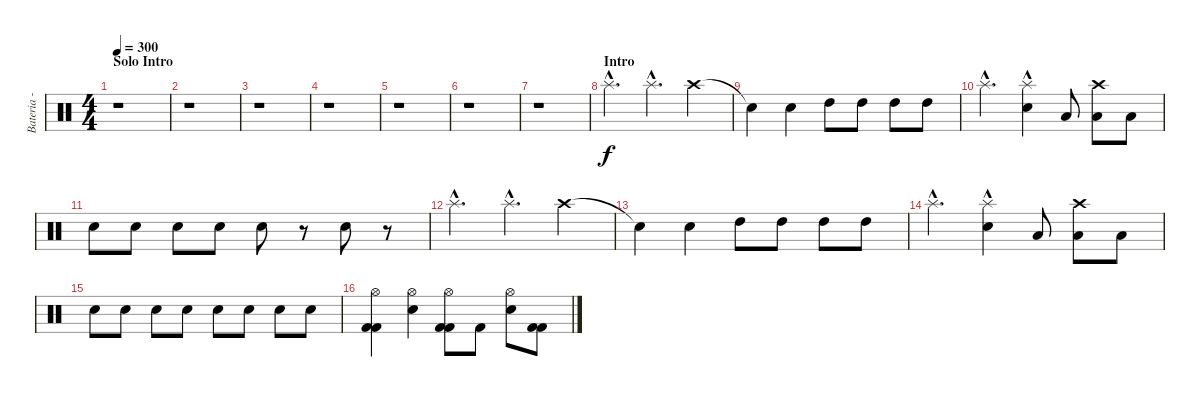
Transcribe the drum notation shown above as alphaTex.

\track ("Bateria - Larzon" "Bateria - ") {instrument percussion}
\staff {score}
\articulation defaults
\ts (4 4)
\section ("" "Solo Intro")
\tempo 300
\clef neutral
\ks c
r.1{dy f} |
r.1 |
r.1 |
r.1 |
r.1 |
r.1 |
r.1 |
\section ("" "Intro")
"Splash (hit)"{hac}.4{d} "Splash (hit)"{hac}.4{d} "Crash high (hit)".4 |
"Snare (hit)"{t}.4 "Electric Snare (hit)".4 "High Tom (hit)".8 "High Tom (hit)".8 "High Tom (hit)".8 "High Tom (hit)".8 |
"Splash (hit)"{hac}.4{d} ("Splash (hit)"{hac} "Electric Snare (hit)").4 "Low Tom (hit)".8 ("Crash high (hit)" "Low Tom (hit)").8 "Low Tom (hit)".8 |
"Electric Snare (hit)".8 "Electric Snare (hit)".8 "Electric Snare (hit)".8 "Electric Snare (hit)".8 "Electric Snare (hit)".8 r.8 "Electric Snare (hit)".8 r.8 |
"Splash (hit)"{hac}.4{d} "Splash (hit)"{hac}.4{d} "Crash high (hit)".4 |
"Snare (hit)"{t}.4 "Electric Snare (hit)".4 "High Tom (hit)".8 "High Tom (hit)".8 "High Tom (hit)".8 "High Tom (hit)".8 |
"Splash (hit)"{hac}.4{d} ("Splash (hit)"{hac} "Electric Snare (hit)").4 "Low Tom (hit)".8 ("Crash high (hit)" "Low Tom (hit)").8 "Low Tom (hit)".8 |
"Electric Snare (hit)".8 "Electric Snare (hit)".8 "Electric Snare (hit)".8 "Electric Snare (hit)".8 "Electric Snare (hit)".8 "Electric Snare (hit)".8 "Electric Snare (hit)".8 "Electric Snare (hit)".8 |
("Kick (hit) 2" "Kick (hit) 2" "Hi-Hat (open)").4 ("Snare (hit) 2" "Hi-Hat (open)").4 ("Kick (hit) 2" "Kick (hit) 2" "Hi-Hat (open)").8 "Kick (hit) 2".8 ("Snare (hit) 2" "Hi-Hat (open)").8 ("Kick (hit) 2" "Kick (hit) 2").8
